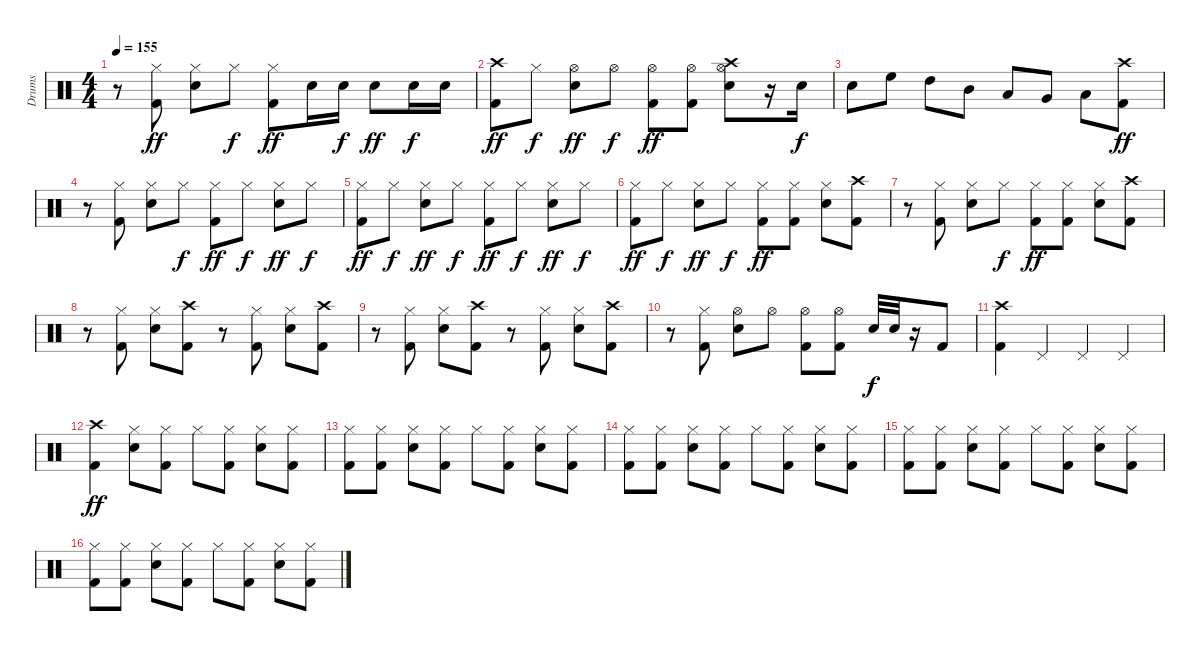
\track ("Drums" "Drums") {instrument percussion}
\staff {score}
\articulation defaults
\ts (4 4)
\tempo 155
\clef neutral
\ks c
r.8{dy ff} ("Hi-Hat (closed)" "Kick (hit) 2").8 ("Hi-Hat (closed)" "Snare (hit) 2").8 "Hi-Hat (closed)".8{dy f} ("Hi-Hat (closed)" "Kick (hit) 2").8{dy ff} "Snare (hit) 2".16 "Snare (hit) 2".16{dy f} "Snare (hit) 2".8{dy ff} "Snare (hit) 2".16{dy f} "Snare (hit) 2".16 |
("Crash high (hit)" "Kick (hit) 2").8{dy ff} "Hi-Hat (closed)".8{dy f} ("Hi-Hat (open)" "Snare (hit) 2").8{dy ff} "Hi-Hat (open)".8{dy f} ("Hi-Hat (open)" "Kick (hit) 2").8{dy ff} ("Hi-Hat (open)" "Kick (hit) 2").8 ("Hi-Hat (open)" "Crash high (hit)" "Snare (hit) 2").8 r.16 "Snare (hit) 2".16{dy f} |
"Snare (hit) 2".8 "High Floor Tom (hit)".8 "High Tom (hit)".8 "Mid Tom (hit)".8 "Low Tom (hit)".8 "Very Low Tom (hit)".8 "Low Floor Tom (hit)".8 ("Crash high (hit)" "Kick (hit) 2").8{dy ff} |
r.8 ("Hi-Hat (closed)" "Kick (hit) 2").8 ("Hi-Hat (closed)" "Snare (hit) 2").8 "Hi-Hat (closed)".8{dy f} ("Hi-Hat (closed)" "Kick (hit) 2").8{dy ff} "Hi-Hat (closed)".8{dy f} ("Hi-Hat (closed)" "Snare (hit) 2").8{dy ff} "Hi-Hat (closed)".8{dy f} |
("Hi-Hat (closed)" "Kick (hit) 2").8{dy ff} "Hi-Hat (closed)".8{dy f} ("Hi-Hat (closed)" "Snare (hit) 2").8{dy ff} "Hi-Hat (closed)".8{dy f} ("Hi-Hat (closed)" "Kick (hit) 2").8{dy ff} "Hi-Hat (closed)".8{dy f} ("Hi-Hat (closed)" "Snare (hit) 2").8{dy ff} "Hi-Hat (closed)".8{dy f} |
("Hi-Hat (closed)" "Kick (hit) 2").8{dy ff} "Hi-Hat (closed)".8{dy f} ("Hi-Hat (closed)" "Snare (hit) 2").8{dy ff} "Hi-Hat (closed)".8{dy f} ("Hi-Hat (closed)" "Kick (hit) 2").8{dy ff} ("Hi-Hat (closed)" "Kick (hit) 2").8 ("Hi-Hat (closed)" "Snare (hit) 2").8 ("Crash high (hit)" "Kick (hit) 2").8 |
r.8 ("Hi-Hat (closed)" "Kick (hit) 2").8 ("Hi-Hat (closed)" "Snare (hit) 2").8 "Hi-Hat (closed)".8{dy f} ("Hi-Hat (closed)" "Kick (hit) 2").8{dy ff} ("Hi-Hat (closed)" "Kick (hit) 2").8 ("Hi-Hat (closed)" "Snare (hit) 2").8 ("Crash high (hit)" "Kick (hit) 2").8 |
r.8 ("Hi-Hat (closed)" "Kick (hit) 2").8 ("Hi-Hat (closed)" "Snare (hit) 2").8 ("Crash high (hit)" "Kick (hit) 2").8 r.8 ("Hi-Hat (closed)" "Kick (hit) 2").8 ("Hi-Hat (closed)" "Snare (hit) 2").8 ("Crash high (hit)" "Kick (hit) 2").8 |
r.8 ("Hi-Hat (closed)" "Kick (hit) 2").8 ("Hi-Hat (closed)" "Snare (hit) 2").8 ("Crash high (hit)" "Kick (hit) 2").8 r.8 ("Hi-Hat (closed)" "Kick (hit) 2").8 ("Hi-Hat (closed)" "Snare (hit) 2").8 ("Crash high (hit)" "Kick (hit) 2").8 |
r.8 ("Hi-Hat (closed)" "Kick (hit) 2").8 ("Hi-Hat (open)" "Snare (hit) 2").8 "Hi-Hat (open)".8 ("Hi-Hat (open)" "Kick (hit) 2").8 ("Hi-Hat (open)" "Kick (hit) 2").8 "Snare (hit) 2".32{dy f} "Snare (hit) 2".32 r.16 "Kick (hit) 2".8 |
("Crash high (hit)" "Kick (hit) 2").4 "Pedal Hi-Hat (hit)".4 "Pedal Hi-Hat (hit)".4 "Pedal Hi-Hat (hit)".4 |
("Crash high (hit)" "Kick (hit) 2").4{dy ff} ("Hi-Hat (closed)" "Snare (hit) 2").8 ("Hi-Hat (closed)" "Kick (hit) 2").8 "Hi-Hat (closed)".8 ("Hi-Hat (closed)" "Kick (hit) 2").8 ("Hi-Hat (closed)" "Snare (hit) 2").8 ("Hi-Hat (closed)" "Kick (hit) 2").8 |
("Hi-Hat (closed)" "Kick (hit) 2").8 ("Hi-Hat (closed)" "Kick (hit) 2").8 ("Hi-Hat (closed)" "Snare (hit) 2").8 ("Hi-Hat (closed)" "Kick (hit) 2").8 "Hi-Hat (closed)".8 ("Hi-Hat (closed)" "Kick (hit) 2").8 ("Hi-Hat (closed)" "Snare (hit) 2").8 ("Hi-Hat (closed)" "Kick (hit) 2").8 |
("Hi-Hat (closed)" "Kick (hit) 2").8 ("Hi-Hat (closed)" "Kick (hit) 2").8 ("Hi-Hat (closed)" "Snare (hit) 2").8 ("Hi-Hat (closed)" "Kick (hit) 2").8 "Hi-Hat (closed)".8 ("Hi-Hat (closed)" "Kick (hit) 2").8 ("Hi-Hat (closed)" "Snare (hit) 2").8 ("Hi-Hat (closed)" "Kick (hit) 2").8 |
("Hi-Hat (closed)" "Kick (hit) 2").8 ("Hi-Hat (closed)" "Kick (hit) 2").8 ("Hi-Hat (closed)" "Snare (hit) 2").8 ("Hi-Hat (closed)" "Kick (hit) 2").8 "Hi-Hat (closed)".8 ("Hi-Hat (closed)" "Kick (hit) 2").8 ("Hi-Hat (closed)" "Snare (hit) 2").8 ("Hi-Hat (closed)" "Kick (hit) 2").8 |
("Hi-Hat (closed)" "Kick (hit) 2").8 ("Hi-Hat (closed)" "Kick (hit) 2").8 ("Hi-Hat (closed)" "Snare (hit) 2").8 ("Hi-Hat (closed)" "Kick (hit) 2").8 "Hi-Hat (closed)".8 ("Hi-Hat (closed)" "Kick (hit) 2").8 ("Hi-Hat (closed)" "Snare (hit) 2").8 ("Hi-Hat (closed)" "Kick (hit) 2").8
